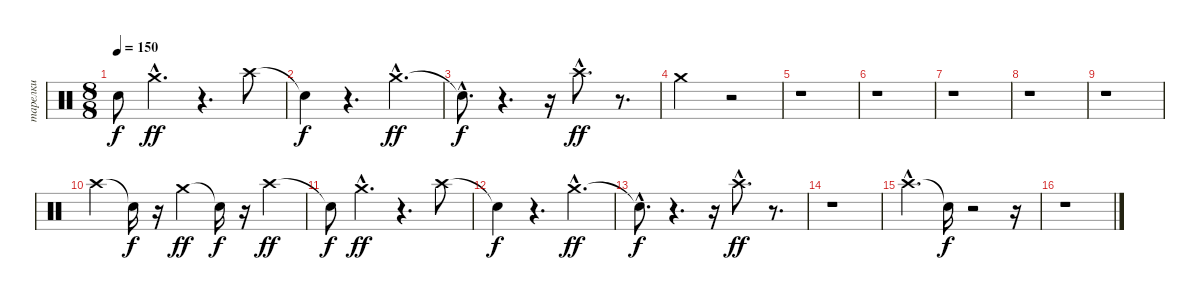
\track ("тарелки" "тарелки") {instrument percussion}
\staff {score}
\articulation defaults
\ts (8 8)
\tempo 150
\clef neutral
\ks c "Snare (hit)"{t}.8{dy f} "Crash medium (hit)"{hac}.4{d dy ff}
r.4{d} "Crash high (hit)".8 |
"Snare (hit)"{t}.4{dy f} r.4{d} "Crash medium (hit)"{hac}.4{d dy ff} |
"Snare (hit)"{hac t}.8{d dy f} r.4{d} r.16 "Crash high (hit)"{hac}.8{d dy ff} r.8{d} |
"Crash medium (hit)".2 r.2 |
r.1 |
r.1 |
r.1 |
r.1 |
r.1 |
"Crash high (hit)".4 "Snare (hit)"{t}.16{dy f} r.16 "Crash medium (hit)".4{dy ff} "Snare (hit)"{t}.16{dy f} r.16 "Crash high (hit)".4{dy ff} |
"Snare (hit)"{t}.8{dy f} "Crash medium (hit)"{hac}.4{d dy ff} r.4{d} "Crash high (hit)".8 |
"Snare (hit)"{t}.4{dy f} r.4{d} "Crash medium (hit)"{hac}.4{d dy ff} |
"Snare (hit)"{hac t}.8{d dy f} r.4{d} r.16 "Crash high (hit)"{hac}.8{d dy ff} r.8{d} |
r.1 |
"Crash high (hit)"{hac}.4{d} "Snare (hit)"{t}.16{dy f} r.2 r.16 |
r.1
